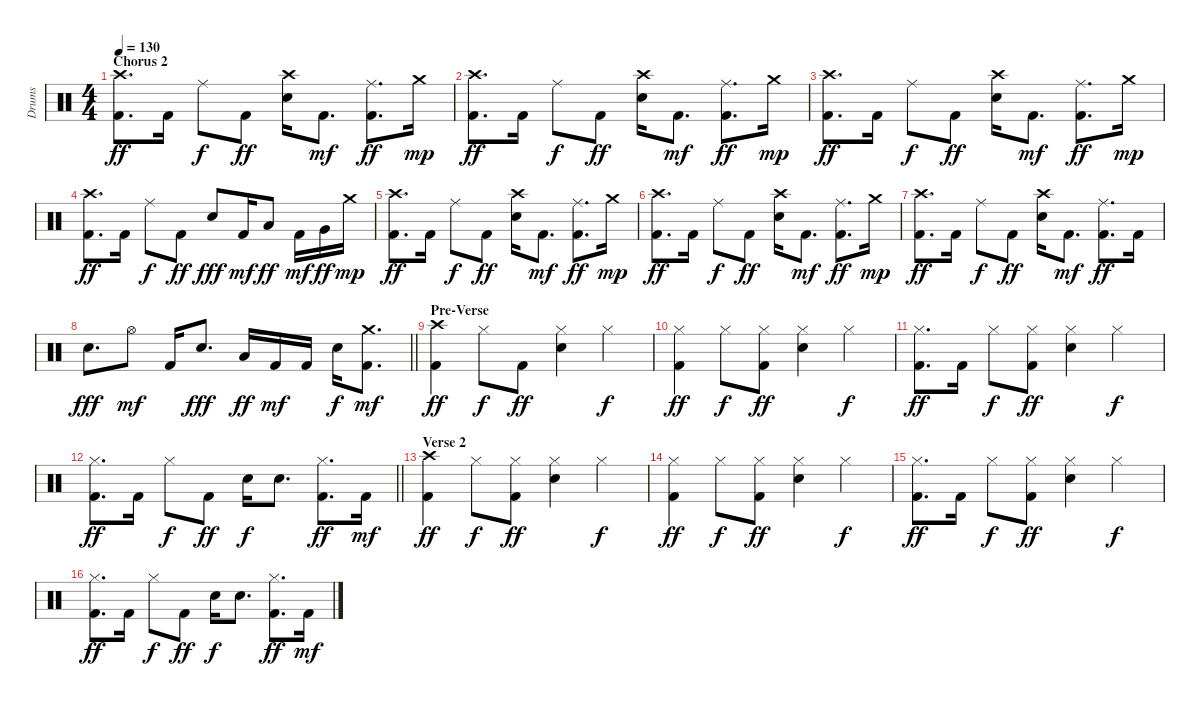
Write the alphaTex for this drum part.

\track ("Drums" "Drums") {instrument percussion}
\staff {score}
\articulation defaults
\ts (4 4)
\section ("" "Chorus 2")
\tempo 130
\clef neutral
\ks c
("Crash high (hit)" "Kick (hit) 2").8{d dy ff} "Kick (hit) 2".16 "Ride (middle)".8{dy f} "Kick (hit) 2".8{dy ff} ("Crash high (hit)" "Electric Snare (hit)").16 "Kick (hit) 2".8{d dy mf} ("Ride (middle)" "Kick (hit) 2").8{d dy ff} "Crash medium (hit)".16{dy mp} |
("Crash high (hit)" "Kick (hit) 2").8{d dy ff} "Kick (hit) 2".16 "Ride (middle)".8{dy f} "Kick (hit) 2".8{dy ff} ("Crash high (hit)" "Electric Snare (hit)").16 "Kick (hit) 2".8{d dy mf} ("Ride (middle)" "Kick (hit) 2").8{d dy ff} "Crash medium (hit)".16{dy mp} |
("Crash high (hit)" "Kick (hit) 2").8{d dy ff} "Kick (hit) 2".16 "Ride (middle)".8{dy f} "Kick (hit) 2".8{dy ff} ("Crash high (hit)" "Electric Snare (hit)").16 "Kick (hit) 2".8{d dy mf} ("Ride (middle)" "Kick (hit) 2").8{d dy ff} "Crash medium (hit)".16{dy mp} |
("Crash high (hit)" "Kick (hit) 2").8{d dy ff} "Kick (hit) 2".16 "Ride (middle)".8{dy f} "Kick (hit) 2".8{dy ff} "Electric Snare (hit)".8{dy fff} "Kick (hit) 2".16{dy mf} "Low Tom (hit)".8{dy ff} "Kick (hit) 2".16{dy mf} "Very Low Tom (hit)".16{dy ff} "Crash medium (hit)".16{dy mp} |
("Crash high (hit)" "Kick (hit) 2").8{d dy ff} "Kick (hit) 2".16 "Ride (middle)".8{dy f} "Kick (hit) 2".8{dy ff} ("Crash high (hit)" "Electric Snare (hit)").16 "Kick (hit) 2".8{d dy mf} ("Ride (middle)" "Kick (hit) 2").8{d dy ff} "Crash medium (hit)".16{dy mp} |
("Crash high (hit)" "Kick (hit) 2").8{d dy ff} "Kick (hit) 2".16 "Ride (middle)".8{dy f} "Kick (hit) 2".8{dy ff} ("Crash high (hit)" "Electric Snare (hit)").16 "Kick (hit) 2".8{d dy mf} ("Ride (middle)" "Kick (hit) 2").8{d dy ff} "Crash medium (hit)".16{dy mp} |
("Crash high (hit)" "Kick (hit) 2").8{d dy ff} "Kick (hit) 2".16 "Ride (middle)".8{dy f} "Kick (hit) 2".8{dy ff} ("Crash high (hit)" "Electric Snare (hit)").16 "Kick (hit) 2".8{d dy mf} ("Ride (middle)" "Kick (hit) 2").8{d dy ff} "Kick (hit) 2".16 |
\barLineRight lightlight "Electric Snare (hit)".8{d dy fff} "Hi-Hat (open)".8{dy mf} "Kick (hit) 2".16 "Electric Snare (hit)".8{d dy fff} "Low Tom (hit)".16{dy ff} "Kick (hit) 2".16{dy mf} "Kick (hit) 2".16 "Electric Snare (hit)".16{dy f}
("Crash medium (hit)" "Kick (hit) 2").8{d dy mf} |
\section ("" "Pre-Verse")
("Crash high (hit)" "Kick (hit) 2").4{dy ff} "Hi-Hat (closed)".8{dy f} "Kick (hit) 2".8{dy ff} ("Hi-Hat (closed)" "Electric Snare (hit)").4 "Hi-Hat (closed)".4{dy f} |
("Hi-Hat (closed)" "Kick (hit) 2").4{dy ff} "Hi-Hat (closed)".8{dy f} ("Hi-Hat (closed)" "Kick (hit) 2").8{dy ff} ("Hi-Hat (closed)" "Electric Snare (hit)").4 "Hi-Hat (closed)".4{dy f} |
("Hi-Hat (closed)" "Kick (hit) 2").8{d dy ff} "Kick (hit) 2".16 "Hi-Hat (closed)".8{dy f} ("Hi-Hat (closed)" "Kick (hit) 2").8{dy ff} ("Hi-Hat (closed)" "Electric Snare (hit)").4 "Hi-Hat (closed)".4{dy f} |
\barLineRight lightlight
("Hi-Hat (closed)" "Kick (hit) 2").8{d dy ff} "Kick (hit) 2".16 "Hi-Hat (closed)".8{dy f} "Kick (hit) 2".8{dy ff} "Electric Snare (hit)".16{dy f} "Electric Snare (hit)".8{d} ("Hi-Hat (closed)" "Kick (hit) 2").8{d dy ff} "Kick (hit) 2".16{dy mf} |
\section ("" "Verse 2")
("Crash high (hit)" "Kick (hit) 2").4{dy ff} "Hi-Hat (closed)".8{dy f} ("Hi-Hat (closed)" "Kick (hit) 2").8{dy ff} ("Hi-Hat (closed)" "Electric Snare (hit)").4 "Hi-Hat (closed)".4{dy f} |
("Hi-Hat (closed)" "Kick (hit) 2").4{dy ff} "Hi-Hat (closed)".8{dy f} ("Hi-Hat (closed)" "Kick (hit) 2").8{dy ff} ("Hi-Hat (closed)" "Electric Snare (hit)").4 "Hi-Hat (closed)".4{dy f} |
("Hi-Hat (closed)" "Kick (hit) 2").8{d dy ff} "Kick (hit) 2".16 "Hi-Hat (closed)".8{dy f} ("Hi-Hat (closed)" "Kick (hit) 2").8{dy ff} ("Hi-Hat (closed)" "Electric Snare (hit)").4 "Hi-Hat (closed)".4{dy f} |
("Hi-Hat (closed)" "Kick (hit) 2").8{d dy ff} "Kick (hit) 2".16 "Hi-Hat (closed)".8{dy f} "Kick (hit) 2".8{dy ff} "Electric Snare (hit)".16{dy f} "Electric Snare (hit)".8{d} ("Hi-Hat (closed)" "Kick (hit) 2").8{d dy ff} "Kick (hit) 2".16{dy mf}
